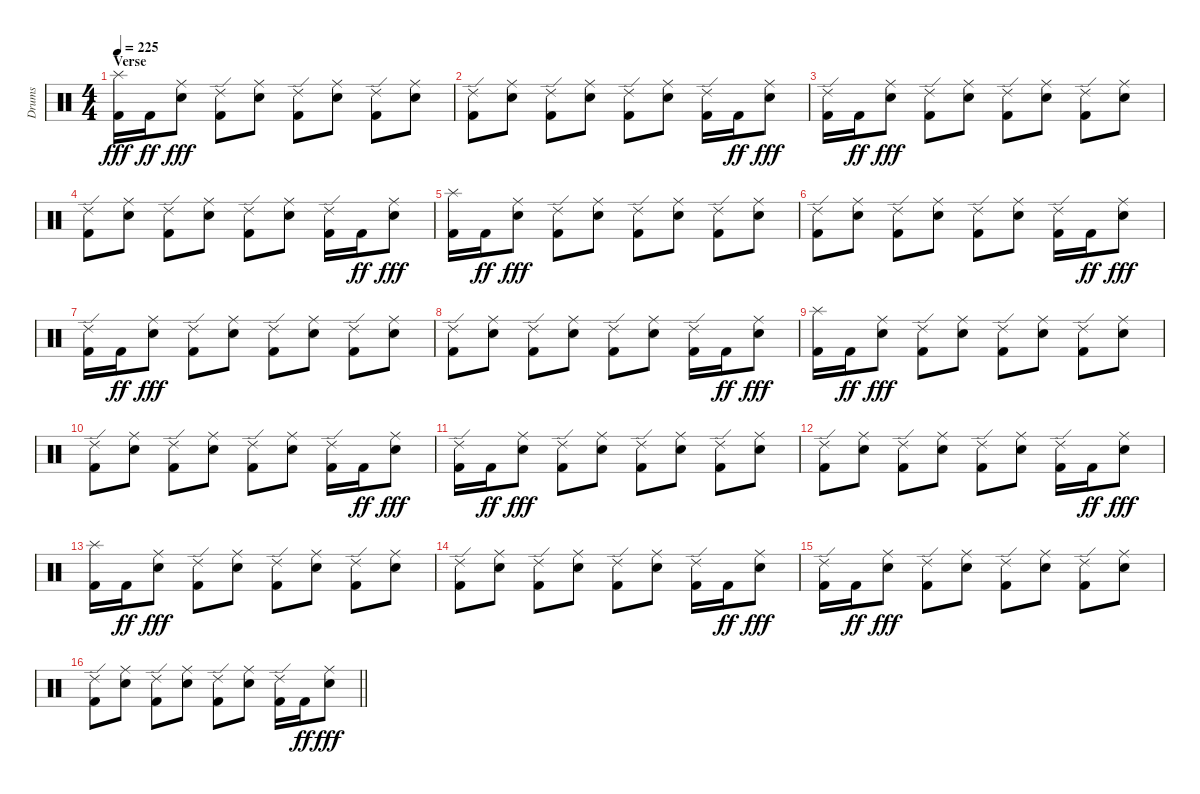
\track ("Drums" "Drums") {instrument percussion}
\staff {score}
\articulation defaults
\ts (4 4)
\section ("" "Verse")
\tempo 225
\clef neutral
\ks c
("Kick (hit) 2" "Splash (hit)").16{dy fff} "Kick (hit) 2".16{dy ff} ("Snare (hit) 2" "Ride (middle)").8{dy fff} ("Kick (hit) 2" "Ride (edge) 2").8 ("Snare (hit) 2" "Ride (middle)").8 ("Kick (hit) 2" "Ride (edge) 2").8 ("Snare (hit) 2" "Ride (middle)").8 ("Kick (hit) 2" "Ride (edge) 2").8 ("Snare (hit) 2" "Ride (middle)").8 |
("Kick (hit) 2" "Ride (edge) 2").8 ("Snare (hit) 2" "Ride (middle)").8 ("Kick (hit) 2" "Ride (edge) 2").8 ("Snare (hit) 2" "Ride (middle)").8 ("Kick (hit) 2" "Ride (edge) 2").8 ("Snare (hit) 2" "Ride (middle)").8 ("Kick (hit) 2" "Ride (edge) 2").16 "Kick (hit) 2".16{dy ff} ("Snare (hit) 2" "Ride (middle)").8{dy fff} |
("Kick (hit) 2" "Ride (edge) 2").16 "Kick (hit) 2".16{dy ff} ("Snare (hit) 2" "Ride (middle)").8{dy fff} ("Kick (hit) 2" "Ride (edge) 2").8 ("Snare (hit) 2" "Ride (middle)").8 ("Kick (hit) 2" "Ride (edge) 2").8 ("Snare (hit) 2" "Ride (middle)").8 ("Kick (hit) 2" "Ride (edge) 2").8 ("Snare (hit) 2" "Ride (middle)").8 |
("Kick (hit) 2" "Ride (edge) 2").8 ("Snare (hit) 2" "Ride (middle)").8 ("Kick (hit) 2" "Ride (edge) 2").8 ("Snare (hit) 2" "Ride (middle)").8 ("Kick (hit) 2" "Ride (edge) 2").8 ("Snare (hit) 2" "Ride (middle)").8 ("Kick (hit) 2" "Ride (edge) 2").16 "Kick (hit) 2".16{dy ff} ("Snare (hit) 2" "Ride (middle)").8{dy fff} |
("Kick (hit) 2" "Splash (hit)").16 "Kick (hit) 2".16{dy ff} ("Snare (hit) 2" "Ride (middle)").8{dy fff} ("Kick (hit) 2" "Ride (edge) 2").8 ("Snare (hit) 2" "Ride (middle)").8 ("Kick (hit) 2" "Ride (edge) 2").8 ("Snare (hit) 2" "Ride (middle)").8 ("Kick (hit) 2" "Ride (edge) 2").8 ("Snare (hit) 2" "Ride (middle)").8 |
("Kick (hit) 2" "Ride (edge) 2").8 ("Snare (hit) 2" "Ride (middle)").8 ("Kick (hit) 2" "Ride (edge) 2").8 ("Snare (hit) 2" "Ride (middle)").8 ("Kick (hit) 2" "Ride (edge) 2").8 ("Snare (hit) 2" "Ride (middle)").8 ("Kick (hit) 2" "Ride (edge) 2").16 "Kick (hit) 2".16{dy ff} ("Snare (hit) 2" "Ride (middle)").8{dy fff} |
("Kick (hit) 2" "Ride (edge) 2").16 "Kick (hit) 2".16{dy ff} ("Snare (hit) 2" "Ride (middle)").8{dy fff} ("Kick (hit) 2" "Ride (edge) 2").8 ("Snare (hit) 2" "Ride (middle)").8 ("Kick (hit) 2" "Ride (edge) 2").8 ("Snare (hit) 2" "Ride (middle)").8 ("Kick (hit) 2" "Ride (edge) 2").8 ("Snare (hit) 2" "Ride (middle)").8 |
("Kick (hit) 2" "Ride (edge) 2").8 ("Snare (hit) 2" "Ride (middle)").8 ("Kick (hit) 2" "Ride (edge) 2").8 ("Snare (hit) 2" "Ride (middle)").8 ("Kick (hit) 2" "Ride (edge) 2").8 ("Snare (hit) 2" "Ride (middle)").8 ("Kick (hit) 2" "Ride (edge) 2").16 "Kick (hit) 2".16{dy ff} ("Snare (hit) 2" "Ride (middle)").8{dy fff} |
("Kick (hit) 2" "Splash (hit)").16 "Kick (hit) 2".16{dy ff} ("Snare (hit) 2" "Ride (middle)").8{dy fff} ("Kick (hit) 2" "Ride (edge) 2").8 ("Snare (hit) 2" "Ride (middle)").8 ("Kick (hit) 2" "Ride (edge) 2").8 ("Snare (hit) 2" "Ride (middle)").8 ("Kick (hit) 2" "Ride (edge) 2").8 ("Snare (hit) 2" "Ride (middle)").8 |
("Kick (hit) 2" "Ride (edge) 2").8 ("Snare (hit) 2" "Ride (middle)").8 ("Kick (hit) 2" "Ride (edge) 2").8 ("Snare (hit) 2" "Ride (middle)").8 ("Kick (hit) 2" "Ride (edge) 2").8 ("Snare (hit) 2" "Ride (middle)").8 ("Kick (hit) 2" "Ride (edge) 2").16 "Kick (hit) 2".16{dy ff} ("Snare (hit) 2" "Ride (middle)").8{dy fff} |
("Kick (hit) 2" "Ride (edge) 2").16 "Kick (hit) 2".16{dy ff} ("Snare (hit) 2" "Ride (middle)").8{dy fff} ("Kick (hit) 2" "Ride (edge) 2").8 ("Snare (hit) 2" "Ride (middle)").8 ("Kick (hit) 2" "Ride (edge) 2").8 ("Snare (hit) 2" "Ride (middle)").8 ("Kick (hit) 2" "Ride (edge) 2").8 ("Snare (hit) 2" "Ride (middle)").8 |
("Kick (hit) 2" "Ride (edge) 2").8 ("Snare (hit) 2" "Ride (middle)").8 ("Kick (hit) 2" "Ride (edge) 2").8 ("Snare (hit) 2" "Ride (middle)").8 ("Kick (hit) 2" "Ride (edge) 2").8 ("Snare (hit) 2" "Ride (middle)").8 ("Kick (hit) 2" "Ride (edge) 2").16 "Kick (hit) 2".16{dy ff} ("Snare (hit) 2" "Ride (middle)").8{dy fff} |
("Kick (hit) 2" "Splash (hit)").16 "Kick (hit) 2".16{dy ff} ("Snare (hit) 2" "Ride (middle)").8{dy fff} ("Kick (hit) 2" "Ride (edge) 2").8 ("Snare (hit) 2" "Ride (middle)").8 ("Kick (hit) 2" "Ride (edge) 2").8 ("Snare (hit) 2" "Ride (middle)").8 ("Kick (hit) 2" "Ride (edge) 2").8 ("Snare (hit) 2" "Ride (middle)").8 |
("Kick (hit) 2" "Ride (edge) 2").8 ("Snare (hit) 2" "Ride (middle)").8 ("Kick (hit) 2" "Ride (edge) 2").8 ("Snare (hit) 2" "Ride (middle)").8 ("Kick (hit) 2" "Ride (edge) 2").8 ("Snare (hit) 2" "Ride (middle)").8 ("Kick (hit) 2" "Ride (edge) 2").16 "Kick (hit) 2".16{dy ff} ("Snare (hit) 2" "Ride (middle)").8{dy fff} |
("Kick (hit) 2" "Ride (edge) 2").16 "Kick (hit) 2".16{dy ff} ("Snare (hit) 2" "Ride (middle)").8{dy fff} ("Kick (hit) 2" "Ride (edge) 2").8 ("Snare (hit) 2" "Ride (middle)").8 ("Kick (hit) 2" "Ride (edge) 2").8 ("Snare (hit) 2" "Ride (middle)").8 ("Kick (hit) 2" "Ride (edge) 2").8 ("Snare (hit) 2" "Ride (middle)").8 |
\barLineRight lightlight
("Kick (hit) 2" "Ride (edge) 2").8 ("Snare (hit) 2" "Ride (middle)").8 ("Kick (hit) 2" "Ride (edge) 2").8 ("Snare (hit) 2" "Ride (middle)").8 ("Kick (hit) 2" "Ride (edge) 2").8 ("Snare (hit) 2" "Ride (middle)").8 ("Kick (hit) 2" "Ride (edge) 2").16 "Kick (hit) 2".16{dy ff} ("Snare (hit) 2" "Ride (middle)").8{dy fff}
